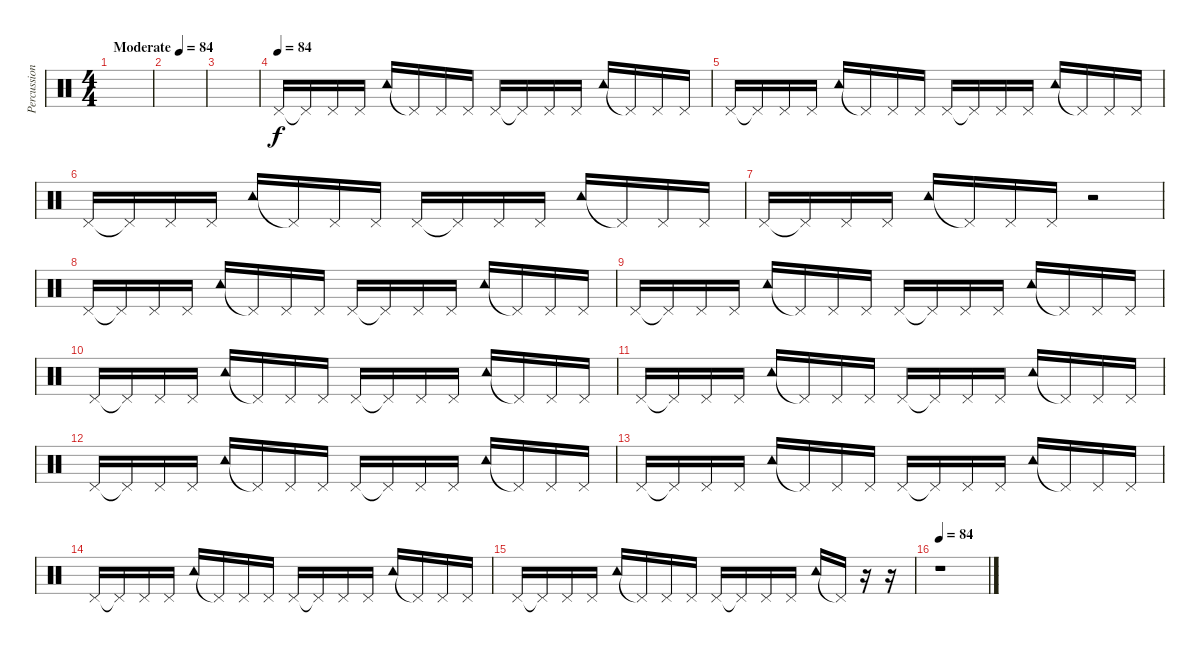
\track ("Percussion" "Percussion") {instrument percussion}
\staff {score}
\articulation defaults
\ts (4 4)
\tempo (84 "Moderate")
\tempo 105
\tempo (84 "Moderate")
\clef neutral
\ks c
|
|
|
\tempo (84)
"Pedal Hi-Hat (hit)".16 "Pedal Hi-Hat (hit)"{t}.16 "Pedal Hi-Hat (hit)".16 "Pedal Hi-Hat (hit)".16 "Tambourine (hit)".16 "Pedal Hi-Hat (hit)"{t}.16 "Pedal Hi-Hat (hit)".16 "Pedal Hi-Hat (hit)".16 "Pedal Hi-Hat (hit)".16 "Pedal Hi-Hat (hit)"{t}.16 "Pedal Hi-Hat (hit)".16 "Pedal Hi-Hat (hit)".16 "Tambourine (hit)".16 "Pedal Hi-Hat (hit)"{t}.16 "Pedal Hi-Hat (hit)".16 "Pedal Hi-Hat (hit)".16 |
"Pedal Hi-Hat (hit)".16 "Pedal Hi-Hat (hit)"{t}.16 "Pedal Hi-Hat (hit)".16 "Pedal Hi-Hat (hit)".16 "Tambourine (hit)".16 "Pedal Hi-Hat (hit)"{t}.16 "Pedal Hi-Hat (hit)".16 "Pedal Hi-Hat (hit)".16 "Pedal Hi-Hat (hit)".16 "Pedal Hi-Hat (hit)"{t}.16 "Pedal Hi-Hat (hit)".16 "Pedal Hi-Hat (hit)".16 "Tambourine (hit)".16 "Pedal Hi-Hat (hit)"{t}.16 "Pedal Hi-Hat (hit)".16 "Pedal Hi-Hat (hit)".16 |
"Pedal Hi-Hat (hit)".16 "Pedal Hi-Hat (hit)"{t}.16 "Pedal Hi-Hat (hit)".16 "Pedal Hi-Hat (hit)".16 "Tambourine (hit)".16 "Pedal Hi-Hat (hit)"{t}.16 "Pedal Hi-Hat (hit)".16 "Pedal Hi-Hat (hit)".16 "Pedal Hi-Hat (hit)".16 "Pedal Hi-Hat (hit)"{t}.16 "Pedal Hi-Hat (hit)".16 "Pedal Hi-Hat (hit)".16 "Tambourine (hit)".16 "Pedal Hi-Hat (hit)"{t}.16 "Pedal Hi-Hat (hit)".16 "Pedal Hi-Hat (hit)".16 |
"Pedal Hi-Hat (hit)".16 "Pedal Hi-Hat (hit)"{t}.16 "Pedal Hi-Hat (hit)".16 "Pedal Hi-Hat (hit)".16 "Tambourine (hit)".16 "Pedal Hi-Hat (hit)"{t}.16 "Pedal Hi-Hat (hit)".16 "Pedal Hi-Hat (hit)".16 r.2 |
"Pedal Hi-Hat (hit)".16 "Pedal Hi-Hat (hit)"{t}.16 "Pedal Hi-Hat (hit)".16 "Pedal Hi-Hat (hit)".16 "Tambourine (hit)".16 "Pedal Hi-Hat (hit)"{t}.16 "Pedal Hi-Hat (hit)".16 "Pedal Hi-Hat (hit)".16 "Pedal Hi-Hat (hit)".16 "Pedal Hi-Hat (hit)"{t}.16 "Pedal Hi-Hat (hit)".16 "Pedal Hi-Hat (hit)".16 "Tambourine (hit)".16 "Pedal Hi-Hat (hit)"{t}.16 "Pedal Hi-Hat (hit)".16 "Pedal Hi-Hat (hit)".16 |
"Pedal Hi-Hat (hit)".16 "Pedal Hi-Hat (hit)"{t}.16 "Pedal Hi-Hat (hit)".16 "Pedal Hi-Hat (hit)".16 "Tambourine (hit)".16 "Pedal Hi-Hat (hit)"{t}.16 "Pedal Hi-Hat (hit)".16 "Pedal Hi-Hat (hit)".16 "Pedal Hi-Hat (hit)".16 "Pedal Hi-Hat (hit)"{t}.16 "Pedal Hi-Hat (hit)".16 "Pedal Hi-Hat (hit)".16 "Tambourine (hit)".16 "Pedal Hi-Hat (hit)"{t}.16 "Pedal Hi-Hat (hit)".16 "Pedal Hi-Hat (hit)".16 |
"Pedal Hi-Hat (hit)".16 "Pedal Hi-Hat (hit)"{t}.16 "Pedal Hi-Hat (hit)".16 "Pedal Hi-Hat (hit)".16 "Tambourine (hit)".16 "Pedal Hi-Hat (hit)"{t}.16 "Pedal Hi-Hat (hit)".16 "Pedal Hi-Hat (hit)".16 "Pedal Hi-Hat (hit)".16 "Pedal Hi-Hat (hit)"{t}.16 "Pedal Hi-Hat (hit)".16 "Pedal Hi-Hat (hit)".16 "Tambourine (hit)".16 "Pedal Hi-Hat (hit)"{t}.16 "Pedal Hi-Hat (hit)".16 "Pedal Hi-Hat (hit)".16 |
"Pedal Hi-Hat (hit)".16 "Pedal Hi-Hat (hit)"{t}.16 "Pedal Hi-Hat (hit)".16 "Pedal Hi-Hat (hit)".16 "Tambourine (hit)".16 "Pedal Hi-Hat (hit)"{t}.16 "Pedal Hi-Hat (hit)".16 "Pedal Hi-Hat (hit)".16 "Pedal Hi-Hat (hit)".16 "Pedal Hi-Hat (hit)"{t}.16 "Pedal Hi-Hat (hit)".16 "Pedal Hi-Hat (hit)".16 "Tambourine (hit)".16 "Pedal Hi-Hat (hit)"{t}.16 "Pedal Hi-Hat (hit)".16 "Pedal Hi-Hat (hit)".16 |
"Pedal Hi-Hat (hit)".16 "Pedal Hi-Hat (hit)"{t}.16 "Pedal Hi-Hat (hit)".16 "Pedal Hi-Hat (hit)".16 "Tambourine (hit)".16 "Pedal Hi-Hat (hit)"{t}.16 "Pedal Hi-Hat (hit)".16 "Pedal Hi-Hat (hit)".16 "Pedal Hi-Hat (hit)".16 "Pedal Hi-Hat (hit)"{t}.16 "Pedal Hi-Hat (hit)".16 "Pedal Hi-Hat (hit)".16 "Tambourine (hit)".16 "Pedal Hi-Hat (hit)"{t}.16 "Pedal Hi-Hat (hit)".16 "Pedal Hi-Hat (hit)".16 |
"Pedal Hi-Hat (hit)".16 "Pedal Hi-Hat (hit)"{t}.16 "Pedal Hi-Hat (hit)".16 "Pedal Hi-Hat (hit)".16 "Tambourine (hit)".16 "Pedal Hi-Hat (hit)"{t}.16 "Pedal Hi-Hat (hit)".16 "Pedal Hi-Hat (hit)".16 "Pedal Hi-Hat (hit)".16 "Pedal Hi-Hat (hit)"{t}.16 "Pedal Hi-Hat (hit)".16 "Pedal Hi-Hat (hit)".16 "Tambourine (hit)".16 "Pedal Hi-Hat (hit)"{t}.16 "Pedal Hi-Hat (hit)".16 "Pedal Hi-Hat (hit)".16 |
"Pedal Hi-Hat (hit)".16 "Pedal Hi-Hat (hit)"{t}.16 "Pedal Hi-Hat (hit)".16 "Pedal Hi-Hat (hit)".16 "Tambourine (hit)".16 "Pedal Hi-Hat (hit)"{t}.16 "Pedal Hi-Hat (hit)".16 "Pedal Hi-Hat (hit)".16 "Pedal Hi-Hat (hit)".16 "Pedal Hi-Hat (hit)"{t}.16 "Pedal Hi-Hat (hit)".16 "Pedal Hi-Hat (hit)".16 "Tambourine (hit)".16 "Pedal Hi-Hat (hit)"{t}.16 "Pedal Hi-Hat (hit)".16 "Pedal Hi-Hat (hit)".16 |
"Pedal Hi-Hat (hit)".16 "Pedal Hi-Hat (hit)"{t}.16 "Pedal Hi-Hat (hit)".16 "Pedal Hi-Hat (hit)".16 "Tambourine (hit)".16 "Pedal Hi-Hat (hit)"{t}.16 "Pedal Hi-Hat (hit)".16 "Pedal Hi-Hat (hit)".16 "Pedal Hi-Hat (hit)".16 "Pedal Hi-Hat (hit)"{t}.16 "Pedal Hi-Hat (hit)".16 "Pedal Hi-Hat (hit)".16 "Tambourine (hit)".16 "Pedal Hi-Hat (hit)"{t}.16 r.16 r.16 |
\tempo 84
r.1
